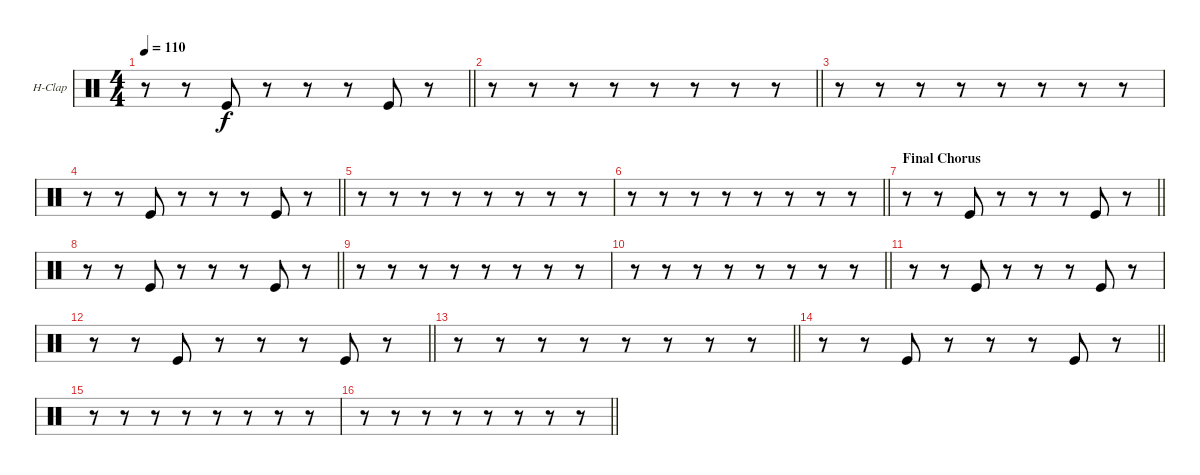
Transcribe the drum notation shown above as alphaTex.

\bracketExtendMode groupsimilarinstruments
\firstSystemTrackNameOrientation horizontal
\otherSystemsTrackNameOrientation horizontal
\track ("Hand Clap" "H-Clap") {instrument percussion}
\staff {score}
\articulation defaults
\ts (4 4)
\tempo 110
\clef neutral
\barLineRight lightlight
\ks c
r.8{dy f} r.8 "Kick (hit)".8 r.8 r.8 r.8 "Kick (hit)".8 r.8 |
\barLineRight lightlight
r.8 r.8 r.8 r.8 r.8 r.8 r.8 r.8 |
r.8 r.8 r.8 r.8 r.8 r.8 r.8 r.8 |
\barLineRight lightlight
r.8 r.8 "Kick (hit)".8 r.8 r.8 r.8 "Kick (hit)".8 r.8 |
r.8 r.8 r.8 r.8 r.8 r.8 r.8 r.8 |
\barLineRight lightlight
r.8 r.8 r.8 r.8 r.8 r.8 r.8 r.8 |
\section ("" "Final Chorus")
\barLineRight lightlight
r.8 r.8 "Kick (hit)".8 r.8 r.8 r.8 "Kick (hit)".8 r.8 |
\barLineRight lightlight
r.8 r.8 "Kick (hit)".8 r.8 r.8 r.8 "Kick (hit)".8 r.8 |
r.8 r.8 r.8 r.8 r.8 r.8 r.8 r.8 |
\barLineRight lightlight
r.8 r.8 r.8 r.8 r.8 r.8 r.8 r.8 |
r.8 r.8 "Kick (hit)".8 r.8 r.8 r.8 "Kick (hit)".8 r.8 |
\barLineRight lightlight
r.8 r.8 "Kick (hit)".8 r.8 r.8 r.8 "Kick (hit)".8 r.8 |
\barLineRight lightlight
r.8 r.8 r.8 r.8 r.8 r.8 r.8 r.8 |
\barLineRight lightlight
r.8 r.8 "Kick (hit)".8 r.8 r.8 r.8 "Kick (hit)".8 r.8 |
r.8 r.8 r.8 r.8 r.8 r.8 r.8 r.8 |
\barLineRight lightlight
r.8 r.8 r.8 r.8 r.8 r.8 r.8 r.8
